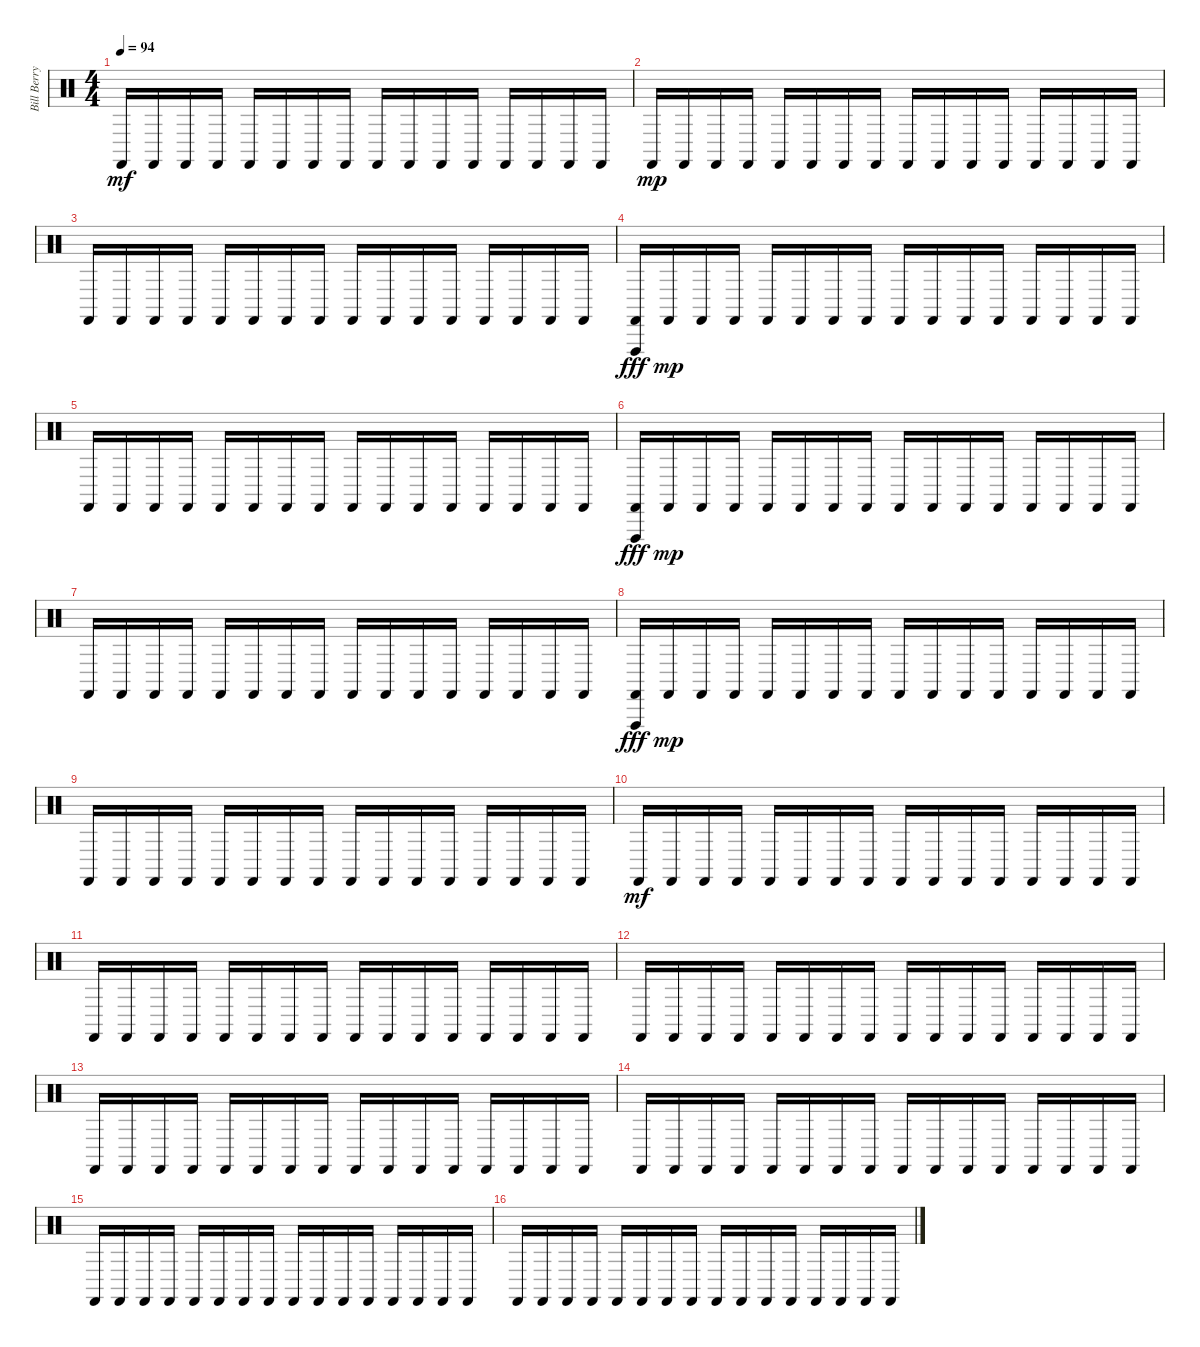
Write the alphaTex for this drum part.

\track ("Bill Berry - Percussion" "Bill Berry") {instrument percussion}
\staff {score}
\articulation defaults
\ts (4 4)
\tempo 94
\clef neutral
\ks c "Castanets (hit)".16{dy mf} "Castanets (hit)".16 "Castanets (hit)".16 "Castanets (hit)".16 "Castanets (hit)".16 "Castanets (hit)".16 "Castanets (hit)".16 "Castanets (hit)".16 "Castanets (hit)".16 "Castanets (hit)".16 "Castanets (hit)".16 "Castanets (hit)".16 "Castanets (hit)".16 "Castanets (hit)".16 "Castanets (hit)".16 "Castanets (hit)".16
|
"Castanets (hit)".16{dy mp} "Castanets (hit)".16 "Castanets (hit)".16 "Castanets (hit)".16 "Castanets (hit)".16 "Castanets (hit)".16 "Castanets (hit)".16 "Castanets (hit)".16 "Castanets (hit)".16 "Castanets (hit)".16 "Castanets (hit)".16 "Castanets (hit)".16 "Castanets (hit)".16 "Castanets (hit)".16 "Castanets (hit)".16 "Castanets (hit)".16 |
"Castanets (hit)".16 "Castanets (hit)".16 "Castanets (hit)".16 "Castanets (hit)".16 "Castanets (hit)".16 "Castanets (hit)".16 "Castanets (hit)".16 "Castanets (hit)".16 "Castanets (hit)".16 "Castanets (hit)".16 "Castanets (hit)".16 "Castanets (hit)".16 "Castanets (hit)".16 "Castanets (hit)".16 "Castanets (hit)".16 "Castanets (hit)".16 |
("Castanets (hit)" "Vibraslap (hit)").16{dy fff} "Castanets (hit)".16{dy mp} "Castanets (hit)".16 "Castanets (hit)".16 "Castanets (hit)".16 "Castanets (hit)".16 "Castanets (hit)".16 "Castanets (hit)".16 "Castanets (hit)".16 "Castanets (hit)".16 "Castanets (hit)".16 "Castanets (hit)".16 "Castanets (hit)".16 "Castanets (hit)".16 "Castanets (hit)".16 "Castanets (hit)".16 |
"Castanets (hit)".16 "Castanets (hit)".16 "Castanets (hit)".16 "Castanets (hit)".16 "Castanets (hit)".16 "Castanets (hit)".16 "Castanets (hit)".16 "Castanets (hit)".16 "Castanets (hit)".16 "Castanets (hit)".16 "Castanets (hit)".16 "Castanets (hit)".16 "Castanets (hit)".16 "Castanets (hit)".16 "Castanets (hit)".16 "Castanets (hit)".16 |
("Castanets (hit)" "Vibraslap (hit)").16{dy fff} "Castanets (hit)".16{dy mp} "Castanets (hit)".16 "Castanets (hit)".16 "Castanets (hit)".16 "Castanets (hit)".16 "Castanets (hit)".16 "Castanets (hit)".16 "Castanets (hit)".16 "Castanets (hit)".16 "Castanets (hit)".16 "Castanets (hit)".16 "Castanets (hit)".16 "Castanets (hit)".16 "Castanets (hit)".16 "Castanets (hit)".16 |
"Castanets (hit)".16 "Castanets (hit)".16 "Castanets (hit)".16 "Castanets (hit)".16 "Castanets (hit)".16 "Castanets (hit)".16 "Castanets (hit)".16 "Castanets (hit)".16 "Castanets (hit)".16 "Castanets (hit)".16 "Castanets (hit)".16 "Castanets (hit)".16 "Castanets (hit)".16 "Castanets (hit)".16 "Castanets (hit)".16 "Castanets (hit)".16 |
("Castanets (hit)" "Vibraslap (hit)").16{dy fff} "Castanets (hit)".16{dy mp} "Castanets (hit)".16 "Castanets (hit)".16 "Castanets (hit)".16 "Castanets (hit)".16 "Castanets (hit)".16 "Castanets (hit)".16 "Castanets (hit)".16 "Castanets (hit)".16 "Castanets (hit)".16 "Castanets (hit)".16 "Castanets (hit)".16 "Castanets (hit)".16 "Castanets (hit)".16 "Castanets (hit)".16 |
"Castanets (hit)".16 "Castanets (hit)".16 "Castanets (hit)".16 "Castanets (hit)".16 "Castanets (hit)".16 "Castanets (hit)".16 "Castanets (hit)".16 "Castanets (hit)".16 "Castanets (hit)".16 "Castanets (hit)".16 "Castanets (hit)".16 "Castanets (hit)".16 "Castanets (hit)".16 "Castanets (hit)".16 "Castanets (hit)".16 "Castanets (hit)".16 |
"Castanets (hit)".16{dy mf} "Castanets (hit)".16 "Castanets (hit)".16 "Castanets (hit)".16 "Castanets (hit)".16 "Castanets (hit)".16 "Castanets (hit)".16 "Castanets (hit)".16 "Castanets (hit)".16 "Castanets (hit)".16 "Castanets (hit)".16 "Castanets (hit)".16 "Castanets (hit)".16 "Castanets (hit)".16 "Castanets (hit)".16 "Castanets (hit)".16 |
"Castanets (hit)".16 "Castanets (hit)".16 "Castanets (hit)".16 "Castanets (hit)".16 "Castanets (hit)".16 "Castanets (hit)".16 "Castanets (hit)".16 "Castanets (hit)".16 "Castanets (hit)".16 "Castanets (hit)".16 "Castanets (hit)".16 "Castanets (hit)".16 "Castanets (hit)".16 "Castanets (hit)".16 "Castanets (hit)".16 "Castanets (hit)".16 |
"Castanets (hit)".16 "Castanets (hit)".16 "Castanets (hit)".16 "Castanets (hit)".16 "Castanets (hit)".16 "Castanets (hit)".16 "Castanets (hit)".16 "Castanets (hit)".16 "Castanets (hit)".16 "Castanets (hit)".16 "Castanets (hit)".16 "Castanets (hit)".16 "Castanets (hit)".16 "Castanets (hit)".16 "Castanets (hit)".16 "Castanets (hit)".16 |
"Castanets (hit)".16 "Castanets (hit)".16 "Castanets (hit)".16 "Castanets (hit)".16 "Castanets (hit)".16 "Castanets (hit)".16 "Castanets (hit)".16 "Castanets (hit)".16 "Castanets (hit)".16 "Castanets (hit)".16 "Castanets (hit)".16 "Castanets (hit)".16 "Castanets (hit)".16 "Castanets (hit)".16 "Castanets (hit)".16 "Castanets (hit)".16 |
"Castanets (hit)".16 "Castanets (hit)".16 "Castanets (hit)".16 "Castanets (hit)".16 "Castanets (hit)".16 "Castanets (hit)".16 "Castanets (hit)".16 "Castanets (hit)".16 "Castanets (hit)".16 "Castanets (hit)".16 "Castanets (hit)".16 "Castanets (hit)".16 "Castanets (hit)".16 "Castanets (hit)".16 "Castanets (hit)".16 "Castanets (hit)".16 |
"Castanets (hit)".16 "Castanets (hit)".16 "Castanets (hit)".16 "Castanets (hit)".16 "Castanets (hit)".16 "Castanets (hit)".16 "Castanets (hit)".16 "Castanets (hit)".16 "Castanets (hit)".16 "Castanets (hit)".16 "Castanets (hit)".16 "Castanets (hit)".16 "Castanets (hit)".16 "Castanets (hit)".16 "Castanets (hit)".16 "Castanets (hit)".16 |
"Castanets (hit)".16 "Castanets (hit)".16 "Castanets (hit)".16 "Castanets (hit)".16 "Castanets (hit)".16 "Castanets (hit)".16 "Castanets (hit)".16 "Castanets (hit)".16 "Castanets (hit)".16 "Castanets (hit)".16 "Castanets (hit)".16 "Castanets (hit)".16 "Castanets (hit)".16 "Castanets (hit)".16 "Castanets (hit)".16 "Castanets (hit)".16
